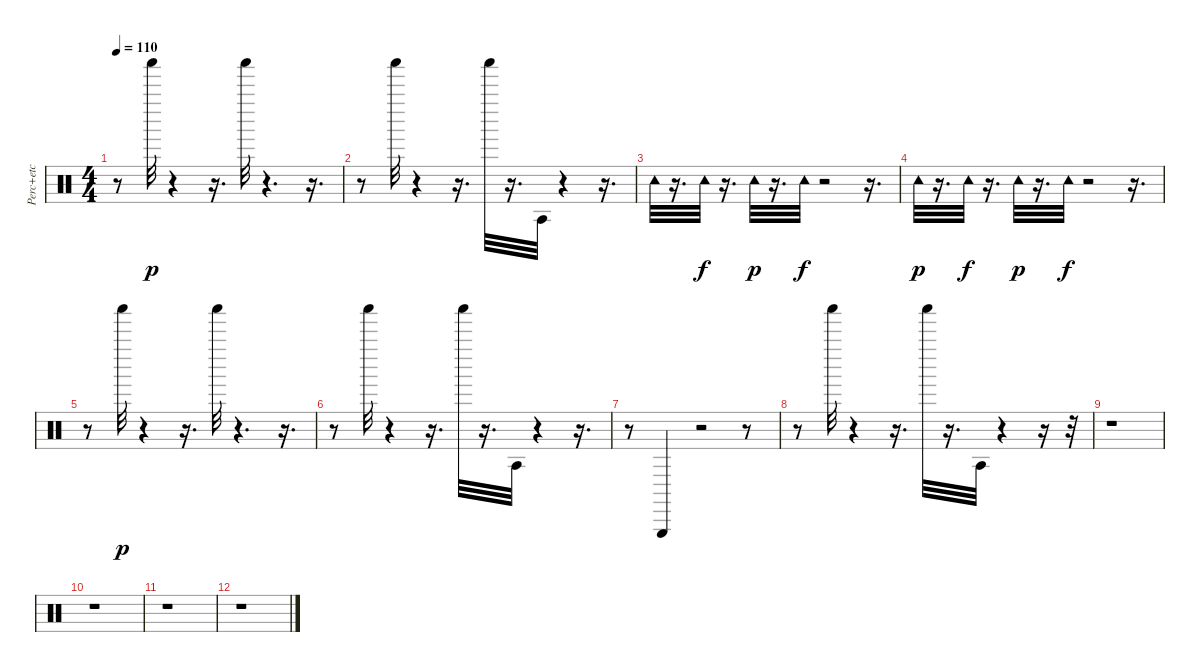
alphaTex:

\track ("Perc+etc" "Perc+etc") {instrument percussion}
\staff {score}
\articulation defaults
\ts (4 4)
\tempo 110
\clef neutral
\ks c
r.8{dy p} "Shaker (hit)".32 r.4 r.16{d} "Shaker (hit)".32 r.4{d} r.16{d} |
r.8 "Shaker (hit)".32 r.4 r.16{d} "Shaker (hit)".32 r.16{d} "Agogo tow (hit)".32 r.4 r.16{d} |
"Tambourine (hit)".32 r.16{d} "Tambourine (hit)".32{dy f} r.16{d} "Tambourine (hit)".32{dy p} r.16{d} "Tambourine (hit)".32{dy f} r.2 r.16{d} |
"Tambourine (hit)".32{dy p} r.16{d} "Tambourine (hit)".32{dy f} r.16{d} "Tambourine (hit)".32{dy p} r.16{d} "Tambourine (hit)".32{dy f} r.2 r.16{d} |
r.8 "Shaker (hit)".32{dy p} r.4 r.16{d} "Shaker (hit)".32 r.4{d} r.16{d} |
r.8 "Shaker (hit)".32 r.4 r.16{d} "Shaker (hit)".32 r.16{d} "Agogo tow (hit)".32 r.4 r.16{d} |
r.8 "Triangle (hit)".4 r.2 r.8 |
r.8 "Shaker (hit)".32 r.4 r.16{d} "Shaker (hit)".32 r.16{d} "Agogo tow (hit)".32 r.4 r.16 r.32 |
r.1 |
r.1 |
r.1 |
r.1
